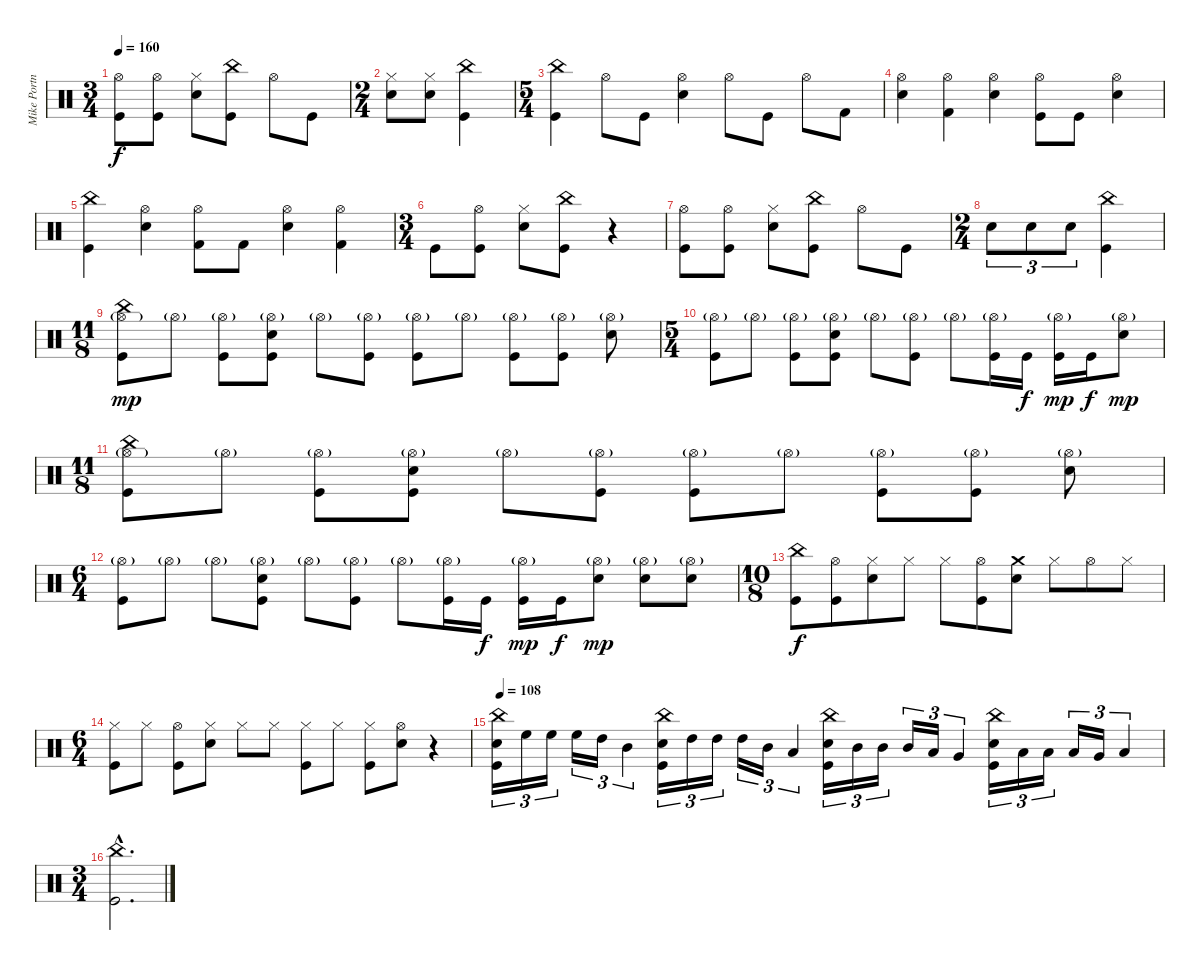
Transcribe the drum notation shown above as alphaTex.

\track ("Mike Portnoy Drums" "Mike Portn") {instrument percussion}
\staff {score}
\articulation defaults
\ts (3 4)
\tempo 160
\clef neutral
\ks c
("Kick (hit)" "Hi-Hat (open)").8{dy f} ("Kick (hit)" "Hi-Hat (open)").8 ("Snare (hit) 2" "Hi-Hat (closed)").8 ("Kick (hit)" "China (hit)").8 "Hi-Hat (open)".8 "Kick (hit)".8 |
\ts (2 4)
("Snare (hit) 2" "Hi-Hat (closed)").8 ("Snare (hit) 2" "Hi-Hat (closed)").8 ("Kick (hit)" "China (hit)").4 |
\ts (5 4)
("Kick (hit)" "China (hit)").4 "Hi-Hat (open)".8 "Kick (hit)".8 ("Snare (hit) 2" "Hi-Hat (open)").4 "Hi-Hat (open)".8 "Kick (hit)".8 "Hi-Hat (open)".8 "Kick (hit) 2".8 |
("Hi-Hat (open)" "Snare (hit) 2").4 ("Hi-Hat (open)" "Kick (hit) 2").4 ("Snare (hit) 2" "Hi-Hat (open)").4 ("Kick (hit)" "Hi-Hat (open)").8 "Kick (hit)".8 ("Hi-Hat (open)" "Snare (hit) 2").4 |
("Kick (hit)" "China (hit)").4 ("Snare (hit) 2" "Hi-Hat (open)").4 ("Kick (hit) 2" "Hi-Hat (open)").8 "Kick (hit) 2".8 ("Snare (hit) 2" "Hi-Hat (open)").4 ("Kick (hit) 2" "Hi-Hat (open)").4 |
\ts (3 4)
"Kick (hit)".8 ("Kick (hit)" "Hi-Hat (open)").8 ("Snare (hit) 2" "Hi-Hat (closed)").8 ("Kick (hit)" "China (hit)").8 r.4 |
("Kick (hit)" "Hi-Hat (open)").8 ("Kick (hit)" "Hi-Hat (open)").8 ("Snare (hit) 2" "Hi-Hat (closed)").8 ("Kick (hit)" "China (hit)").8 "Hi-Hat (open)".8 "Kick (hit)".8 |
\ts (2 4)
"Snare (hit) 2".8{tu (3 2)} "Snare (hit) 2".8{tu (3 2)} "Snare (hit) 2".8{tu (3 2)} ("Kick (hit)" "China (hit)").4 |
\ts (11 8)
("Kick (hit)" "Hi-Hat (open)"{g} "China (hit)").8{dy mp} "Hi-Hat (open)"{g}.8 ("Kick (hit)" "Hi-Hat (open)"{g}).8 ("Kick (hit)" "Snare (hit) 2" "Hi-Hat (open)"{g}).8 "Hi-Hat (open)"{g}.8 ("Kick (hit)" "Hi-Hat (open)"{g}).8 ("Kick (hit)" "Hi-Hat (open)"{g}).8 "Hi-Hat (open)"{g}.8 ("Kick (hit)" "Hi-Hat (open)"{g}).8 ("Kick (hit)" "Hi-Hat (open)"{g}).8 ("Snare (hit) 2" "Hi-Hat (open)"{g}).8 |
\ts (5 4)
("Kick (hit)" "Hi-Hat (open)"{g}).8 "Hi-Hat (open)"{g}.8 ("Kick (hit)" "Hi-Hat (open)"{g}).8 ("Kick (hit)" "Snare (hit) 2" "Hi-Hat (open)"{g}).8 "Hi-Hat (open)"{g}.8 ("Kick (hit)" "Hi-Hat (open)"{g}).8 "Hi-Hat (open)"{g}.8 ("Kick (hit)" "Hi-Hat (open)"{g}).16 "Kick (hit)".16{dy f} ("Kick (hit)" "Hi-Hat (open)"{g}).16{dy mp} "Kick (hit)".16{dy f} ("Snare (hit) 2" "Hi-Hat (open)"{g}).8{dy mp} |
\ts (11 8)
("Kick (hit)" "Hi-Hat (open)"{g} "China (hit)").8 "Hi-Hat (open)"{g}.8 ("Kick (hit)" "Hi-Hat (open)"{g}).8 ("Kick (hit)" "Snare (hit) 2" "Hi-Hat (open)"{g}).8 "Hi-Hat (open)"{g}.8 ("Kick (hit)" "Hi-Hat (open)"{g}).8 ("Kick (hit)" "Hi-Hat (open)"{g}).8 "Hi-Hat (open)"{g}.8 ("Kick (hit)" "Hi-Hat (open)"{g}).8 ("Kick (hit)" "Hi-Hat (open)"{g}).8 ("Snare (hit) 2" "Hi-Hat (open)"{g}).8 |
\ts (6 4)
("Kick (hit)" "Hi-Hat (open)"{g}).8 "Hi-Hat (open)"{g}.8 "Hi-Hat (open)"{g}.8 ("Kick (hit)" "Snare (hit) 2" "Hi-Hat (open)"{g}).8 "Hi-Hat (open)"{g}.8 ("Kick (hit)" "Hi-Hat (open)"{g}).8 "Hi-Hat (open)"{g}.8 ("Kick (hit)" "Hi-Hat (open)"{g}).16 "Kick (hit)".16{dy f} ("Kick (hit)" "Hi-Hat (open)"{g}).16{dy mp} "Kick (hit)".16{dy f} ("Snare (hit) 2" "Hi-Hat (open)"{g}).8{dy mp} ("Snare (hit) 2" "Hi-Hat (open)"{g}).8 ("Snare (hit) 2" "Hi-Hat (open)"{g}).8 |
\ts (10 8)
("Kick (hit)" "China (hit)").8{dy f} ("Kick (hit)" "Hi-Hat (open)").8 ("Snare (hit) 2" "Hi-Hat (closed)").8 "Hi-Hat (closed)".8 "Hi-Hat (closed)".8 ("Kick (hit)" "Hi-Hat (open)").8 ("Snare (hit) 2" "Crash medium (hit)").8 "Hi-Hat (closed)".8 "Hi-Hat (open)".8 "Hi-Hat (closed)".8 |
\ts (6 4)
("Kick (hit)" "Hi-Hat (closed)").8 "Hi-Hat (closed)".8 ("Kick (hit)" "Hi-Hat (open)").8 ("Snare (hit) 2" "Hi-Hat (closed)").8 "Hi-Hat (closed)".8 "Hi-Hat (closed)".8 ("Kick (hit)" "Hi-Hat (closed)").8 "Hi-Hat (closed)".8 ("Kick (hit)" "Hi-Hat (closed)").8 ("Snare (hit) 2" "Hi-Hat (open)").8 r.4 |
\tempo 108
("Kick (hit)" "Snare (hit) 2" "China (hit)").16{tu (3 2)} "High Floor Tom (hit)".16{tu (3 2)} "High Floor Tom (hit)".16{tu (3 2)} "High Floor Tom (hit)".16{tu (3 2)} "High Tom (hit)".16{tu (3 2)} "Mid Tom (hit)".4{tu (3 2)} ("Kick (hit)" "Snare (hit) 2" "China (hit)").16{tu (3 2)} "High Tom (hit)".16{tu (3 2)} "High Tom (hit)".16{tu (3 2)} "High Tom (hit)".16{tu (3 2)} "Mid Tom (hit)".16{tu (3 2)} "Low Tom (hit)".4{tu (3 2)} ("Kick (hit)" "Snare (hit) 2" "China (hit)").16{tu (3 2)} "Mid Tom (hit)".16{tu (3 2)} "Mid Tom (hit)".16{tu (3 2)} "Mid Tom (hit)".16{tu (3 2)} "Low Tom (hit)".16{tu (3 2)} "Very Low Tom (hit)".4{tu (3 2)} ("Kick (hit)" "Snare (hit) 2" "China (hit)").16{tu (3 2)} "Low Tom (hit)".16{tu (3 2)} "Low Tom (hit)".16{tu (3 2)} "Low Tom (hit)".16{tu (3 2)} "Very Low Tom (hit)".16{tu (3 2)} "Low Floor Tom (hit)".4{tu (3 2)} |
\ts (3 4)
("Kick (hit)"{hac} "China (hit)"{hac}).2{d}
